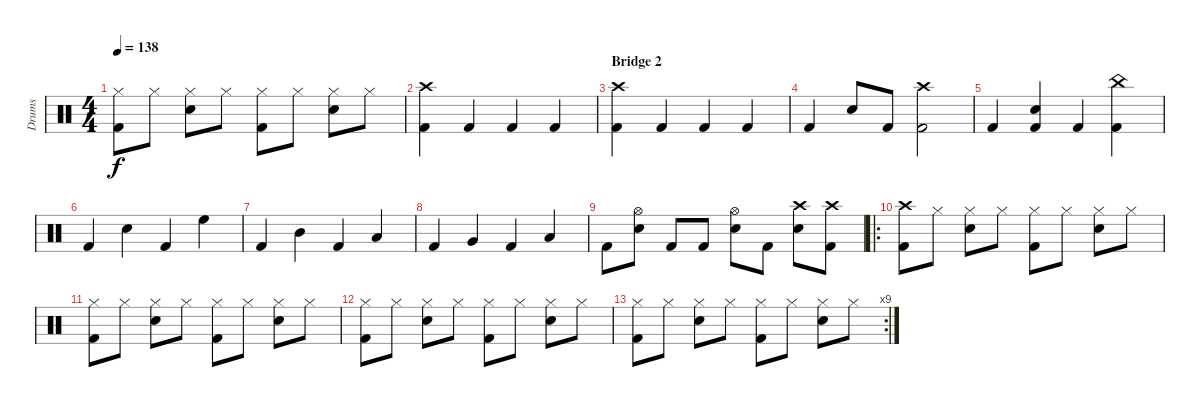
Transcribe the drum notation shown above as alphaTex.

\track ("Drums" "Drums") {instrument percussion}
\staff {score}
\articulation defaults
\ts (4 4)
\tempo 138
\clef neutral
\ks c
("Hi-Hat (closed)" "Kick (hit) 2").8{dy f} "Hi-Hat (closed)".8 ("Hi-Hat (closed)" "Snare (hit) 2").8 "Hi-Hat (closed)".8 ("Hi-Hat (closed)" "Kick (hit) 2").8 "Hi-Hat (closed)".8 ("Hi-Hat (closed)" "Snare (hit) 2").8 "Hi-Hat (closed)".8 |
("Crash high (hit)" "Kick (hit) 2").4 "Kick (hit) 2".4 "Kick (hit) 2".4 "Kick (hit) 2".4 |
\section ("" "Bridge 2")
("Crash high (hit)" "Kick (hit) 2").4 "Kick (hit) 2".4 "Kick (hit) 2".4 "Kick (hit) 2".4 |
"Kick (hit) 2".4 "Snare (hit) 2".8 "Kick (hit) 2".8 ("Crash high (hit)" "Kick (hit) 2").2 |
"Kick (hit) 2".4 ("Snare (hit) 2" "Kick (hit) 2").4 "Kick (hit) 2".4 ("China (hit)" "Kick (hit) 2").4 |
"Kick (hit) 2".4 "Snare (hit) 2".4 "Kick (hit) 2".4 "High Floor Tom (hit)".4 |
"Kick (hit) 2".4 "Mid Tom (hit)".4 "Kick (hit) 2".4 "Low Tom (hit)".4 |
"Kick (hit) 2".4 "Very Low Tom (hit)".4 "Kick (hit) 2".4 "Low Floor Tom (hit)".4 |
"Kick (hit) 2".8 ("Hi-Hat (open)" "Snare (hit) 2").8 "Kick (hit) 2".8 "Kick (hit) 2".8 ("Hi-Hat (open)" "Snare (hit) 2").8 "Kick (hit) 2".8 ("Crash high (hit)" "Snare (hit) 2").8 ("Crash high (hit)" "Kick (hit) 2").8 |
\ro
("Crash high (hit)" "Kick (hit) 2").8 "Hi-Hat (closed)".8 ("Hi-Hat (closed)" "Snare (hit) 2").8 "Hi-Hat (closed)".8 ("Hi-Hat (closed)" "Kick (hit) 2").8 "Hi-Hat (closed)".8 ("Hi-Hat (closed)" "Snare (hit) 2").8 "Hi-Hat (closed)".8 |
("Hi-Hat (closed)" "Kick (hit) 2").8 "Hi-Hat (closed)".8 ("Hi-Hat (closed)" "Snare (hit) 2").8 "Hi-Hat (closed)".8 ("Hi-Hat (closed)" "Kick (hit) 2").8 "Hi-Hat (closed)".8 ("Hi-Hat (closed)" "Snare (hit) 2").8 "Hi-Hat (closed)".8 |
("Hi-Hat (closed)" "Kick (hit) 2").8 "Hi-Hat (closed)".8 ("Hi-Hat (closed)" "Snare (hit) 2").8 "Hi-Hat (closed)".8 ("Hi-Hat (closed)" "Kick (hit) 2").8 "Hi-Hat (closed)".8 ("Hi-Hat (closed)" "Snare (hit) 2").8 "Hi-Hat (closed)".8 |
\rc 9
("Hi-Hat (closed)" "Kick (hit) 2").8 "Hi-Hat (closed)".8 ("Hi-Hat (closed)" "Snare (hit) 2").8 "Hi-Hat (closed)".8 ("Hi-Hat (closed)" "Kick (hit) 2").8 "Hi-Hat (closed)".8 ("Hi-Hat (closed)" "Snare (hit) 2").8 "Hi-Hat (closed)".8
